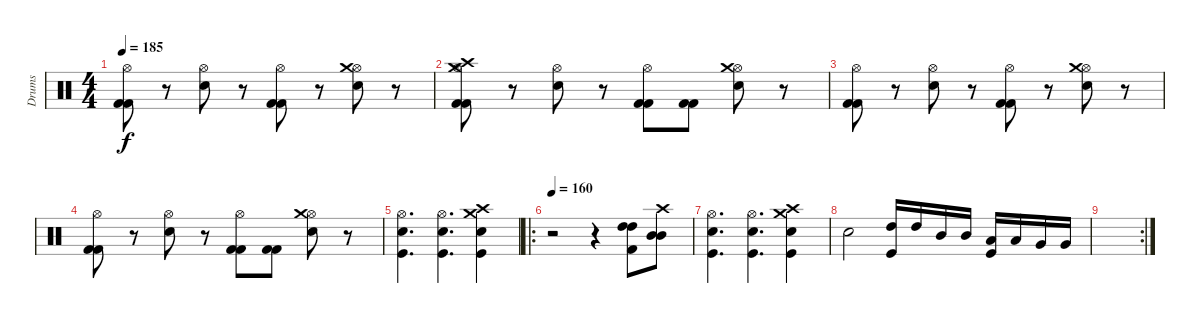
\track ("Drums" "Drums") {instrument percussion}
\staff {score}
\articulation defaults
\ts (4 4)
\tempo 185
\clef neutral
\ks c
("Kick (hit) 2" "Kick (hit) 2" "Hi-Hat (open)").8{dy f} r.8 ("Hi-Hat (open)" "Snare (hit) 2").8 r.8 ("Kick (hit) 2" "Kick (hit) 2" "Hi-Hat (open)").8 r.8 ("Hi-Hat (open)" "Snare (hit) 2" "Crash medium (hit)").8 r.8 |
("Kick (hit) 2" "Kick (hit) 2" "Hi-Hat (open)" "Crash high (hit)" "Crash medium (hit)").8 r.8 ("Hi-Hat (open)" "Snare (hit) 2").8 r.8 ("Kick (hit) 2" "Kick (hit) 2" "Hi-Hat (open)").8 ("Kick (hit) 2" "Kick (hit) 2").8 ("Hi-Hat (open)" "Snare (hit) 2" "Crash medium (hit)").8 r.8 |
("Kick (hit) 2" "Kick (hit) 2" "Hi-Hat (open)").8 r.8 ("Hi-Hat (open)" "Snare (hit) 2").8 r.8 ("Kick (hit) 2" "Kick (hit) 2" "Hi-Hat (open)").8 r.8 ("Hi-Hat (open)" "Snare (hit) 2" "Crash medium (hit)").8 r.8 |
("Kick (hit) 2" "Kick (hit) 2" "Hi-Hat (open)").8 r.8 ("Hi-Hat (open)" "Snare (hit) 2").8 r.8 ("Kick (hit) 2" "Kick (hit) 2" "Hi-Hat (open)").8 ("Kick (hit) 2" "Kick (hit) 2").8 ("Hi-Hat (open)" "Snare (hit) 2" "Crash medium (hit)").8 r.8 |
("Kick (hit)" "Electric Snare (hit)" "Hi-Hat (open)").4{d} ("Kick (hit)" "Electric Snare (hit)" "Hi-Hat (open)").4{d} ("Kick (hit)" "Electric Snare (hit)" "Crash medium (hit)" "Crash high (hit)").4 |
\ro
\tempo 160
r.2 r.4 ("Kick (hit) 2" "High Tom (hit)" "High Tom (hit)").8 ("Mid Tom (hit)" "Mid Tom (hit)" "Crash high (hit)").8 |
("Kick (hit)" "Electric Snare (hit)" "Hi-Hat (open)").4{d} ("Kick (hit)" "Electric Snare (hit)" "Hi-Hat (open)").4{d} ("Kick (hit)" "Electric Snare (hit)" "Crash medium (hit)" "Crash high (hit)").4 |
"Electric Snare (hit)".2 ("Kick (hit)" "High Tom (hit)").16 "High Tom (hit)".16 "Mid Tom (hit)".16 "Mid Tom (hit)".16 ("Kick (hit)" "Low Tom (hit)").16 "Low Tom (hit)".16 "Very Low Tom (hit)".16 "Very Low Tom (hit)".16 |
\rc 2
